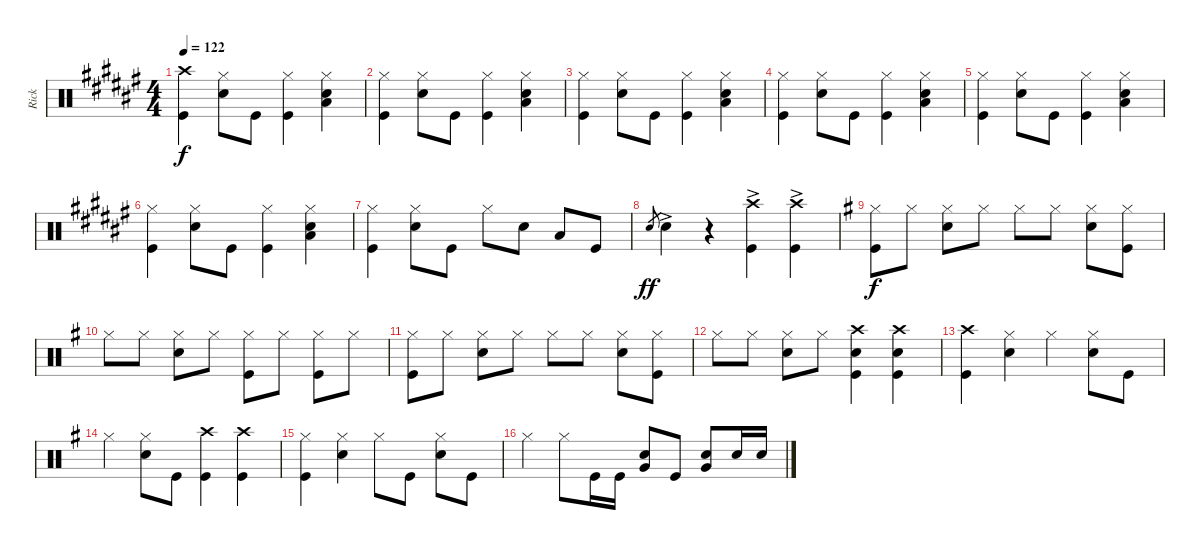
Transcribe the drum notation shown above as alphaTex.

\track ("Rick" "Rick") {instrument percussion}
\staff {score}
\articulation defaults
\ts (4 4)
\tempo 122
\clef neutral
\ks f#
("Crash high (hit)" "Kick (hit)").4{dy f} ("Hi-Hat (closed)" "Snare (hit) 2").8 "Kick (hit)".8 ("Hi-Hat (closed)" "Kick (hit)").4 ("Hi-Hat (closed)" "Snare (hit) 2" "Low Tom (hit)").4 |
("Hi-Hat (closed)" "Kick (hit)").4 ("Hi-Hat (closed)" "Snare (hit) 2").8 "Kick (hit)".8 ("Hi-Hat (closed)" "Kick (hit)").4 ("Hi-Hat (closed)" "Snare (hit) 2" "Low Tom (hit)").4 |
("Hi-Hat (closed)" "Kick (hit)").4 ("Hi-Hat (closed)" "Snare (hit) 2").8 "Kick (hit)".8 ("Hi-Hat (closed)" "Kick (hit)").4 ("Hi-Hat (closed)" "Snare (hit) 2" "Low Tom (hit)").4 |
("Hi-Hat (closed)" "Kick (hit)").4 ("Hi-Hat (closed)" "Snare (hit) 2").8 "Kick (hit)".8 ("Hi-Hat (closed)" "Kick (hit)").4 ("Hi-Hat (closed)" "Snare (hit) 2" "Low Tom (hit)").4 |
("Hi-Hat (closed)" "Kick (hit)").4 ("Hi-Hat (closed)" "Snare (hit) 2").8 "Kick (hit)".8 ("Hi-Hat (closed)" "Kick (hit)").4 ("Hi-Hat (closed)" "Snare (hit) 2" "Low Tom (hit)").4 |
("Hi-Hat (closed)" "Kick (hit)").4 ("Hi-Hat (closed)" "Snare (hit) 2").8 "Kick (hit)".8 ("Hi-Hat (closed)" "Kick (hit)").4 ("Hi-Hat (closed)" "Snare (hit) 2" "Low Tom (hit)").4 |
("Hi-Hat (closed)" "Kick (hit)").4 ("Hi-Hat (closed)" "Snare (hit) 2").8 "Kick (hit)".8 "Hi-Hat (closed)".8 "Snare (hit) 2".8 "Low Tom (hit)".8 "Kick (hit)".8 |
"Snare (hit) 2".8{gr dy ff} "Snare (hit) 2"{ac}.4 r.4 ("Crash high (hit)"{ac} "Kick (hit)"{ac}).4 ("Crash high (hit)"{ac} "Kick (hit)"{ac}).4 |
\ks g
("Hi-Hat (closed)" "Kick (hit)").8{dy f} "Hi-Hat (closed)".8 ("Hi-Hat (closed)" "Snare (hit) 2").8 "Hi-Hat (closed)".8 "Hi-Hat (closed)".8 "Hi-Hat (closed)".8 ("Hi-Hat (closed)" "Snare (hit) 2").8 ("Hi-Hat (closed)" "Kick (hit)").8 |
"Hi-Hat (closed)".8 "Hi-Hat (closed)".8 ("Hi-Hat (closed)" "Snare (hit) 2").8 "Hi-Hat (closed)".8 ("Hi-Hat (closed)" "Kick (hit)").8 "Hi-Hat (closed)".8 ("Hi-Hat (closed)" "Kick (hit)").8 "Hi-Hat (closed)".8 |
("Hi-Hat (closed)" "Kick (hit)").8 "Hi-Hat (closed)".8 ("Hi-Hat (closed)" "Snare (hit) 2").8 "Hi-Hat (closed)".8 "Hi-Hat (closed)".8 "Hi-Hat (closed)".8 ("Hi-Hat (closed)" "Snare (hit) 2").8 ("Hi-Hat (closed)" "Kick (hit)").8 |
"Hi-Hat (closed)".8 "Hi-Hat (closed)".8 ("Hi-Hat (closed)" "Snare (hit) 2").8 "Hi-Hat (closed)".8 ("Crash high (hit)" "Snare (hit) 2" "Kick (hit)").4 ("Crash high (hit)" "Snare (hit) 2" "Kick (hit)").4 |
("Crash high (hit)" "Kick (hit)").4 ("Hi-Hat (closed)" "Snare (hit) 2").4 "Hi-Hat (closed)".4 ("Hi-Hat (closed)" "Snare (hit) 2").8 "Kick (hit)".8 |
"Hi-Hat (closed)".4 ("Hi-Hat (closed)" "Snare (hit) 2").8 "Kick (hit)".8 ("Crash high (hit)" "Kick (hit)").4 ("Crash high (hit)" "Kick (hit)").4 |
("Hi-Hat (closed)" "Kick (hit)").4 ("Hi-Hat (closed)" "Snare (hit) 2").4 "Hi-Hat (closed)".8 "Kick (hit)".8 ("Hi-Hat (closed)" "Snare (hit) 2").8 "Kick (hit)".8 |
"Hi-Hat (closed)".4 "Hi-Hat (closed)".8 "Kick (hit)".16 "Kick (hit)".16 ("Snare (hit) 2" "Very Low Tom (hit)").8 "Kick (hit)".8 ("Snare (hit) 2" "Very Low Tom (hit)").8 "Snare (hit) 2".16 "Snare (hit) 2".16
